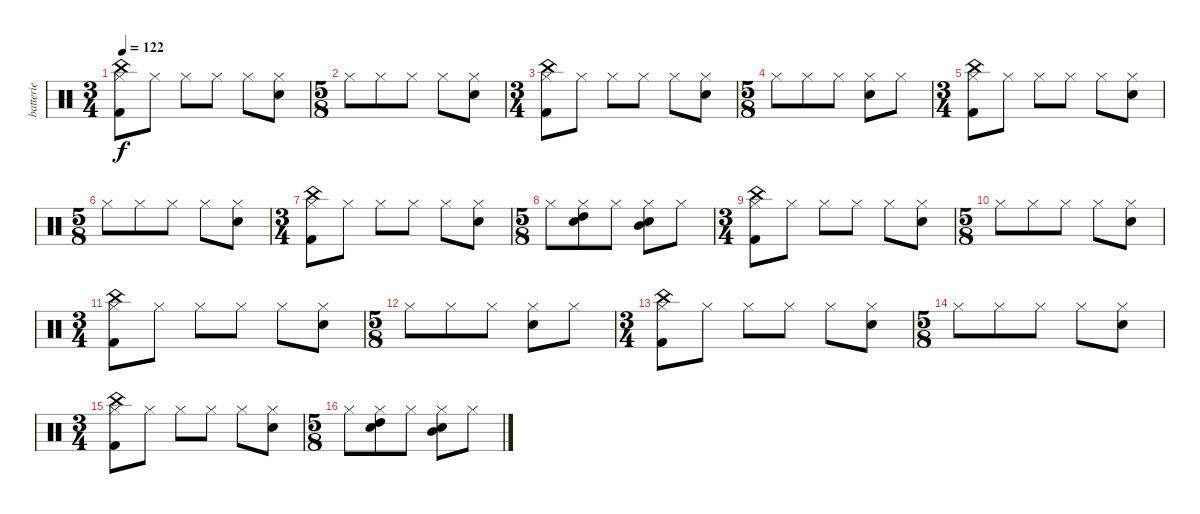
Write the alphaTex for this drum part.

\track ("batterie" "batterie") {instrument percussion}
\staff {score}
\articulation defaults
\ts (3 4)
\tempo 122
\clef neutral
\ks c
("Hi-Hat (closed)" "China (hit)" "Kick (hit) 2").8{dy f} "Hi-Hat (closed)".8 "Hi-Hat (closed)".8 "Hi-Hat (closed)".8 "Hi-Hat (closed)".8 ("Hi-Hat (closed)" "Electric Snare (hit)").8 |
\ts (5 8)
"Hi-Hat (closed)".8 "Hi-Hat (closed)".8 "Hi-Hat (closed)".8 "Hi-Hat (closed)".8 ("Hi-Hat (closed)" "Electric Snare (hit)").8 |
\ts (3 4)
("Hi-Hat (closed)" "China (hit)" "Kick (hit) 2").8 "Hi-Hat (closed)".8 "Hi-Hat (closed)".8 "Hi-Hat (closed)".8 "Hi-Hat (closed)".8 ("Hi-Hat (closed)" "Electric Snare (hit)").8 |
\ts (5 8)
"Hi-Hat (closed)".8 "Hi-Hat (closed)".8 "Hi-Hat (closed)".8 ("Hi-Hat (closed)" "Electric Snare (hit)").8 "Hi-Hat (closed)".8 |
\ts (3 4)
("Hi-Hat (closed)" "China (hit)" "Kick (hit) 2").8 "Hi-Hat (closed)".8 "Hi-Hat (closed)".8 "Hi-Hat (closed)".8 "Hi-Hat (closed)".8 ("Hi-Hat (closed)" "Electric Snare (hit)").8 |
\ts (5 8)
"Hi-Hat (closed)".8 "Hi-Hat (closed)".8 "Hi-Hat (closed)".8 "Hi-Hat (closed)".8 ("Hi-Hat (closed)" "Electric Snare (hit)").8 |
\ts (3 4)
("Hi-Hat (closed)" "China (hit)" "Kick (hit) 2").8 "Hi-Hat (closed)".8 "Hi-Hat (closed)".8 "Hi-Hat (closed)".8 "Hi-Hat (closed)".8 ("Hi-Hat (closed)" "Electric Snare (hit)").8 |
\ts (5 8)
"Hi-Hat (closed)".8 ("Hi-Hat (closed)" "High Tom (hit)" "Electric Snare (hit)").8 "Hi-Hat (closed)".8 ("Hi-Hat (closed)" "Mid Tom (hit)" "Electric Snare (hit)").8 "Hi-Hat (closed)".8 |
\ts (3 4)
("Hi-Hat (closed)" "China (hit)" "Kick (hit) 2").8 "Hi-Hat (closed)".8 "Hi-Hat (closed)".8 "Hi-Hat (closed)".8 "Hi-Hat (closed)".8 ("Hi-Hat (closed)" "Electric Snare (hit)").8 |
\ts (5 8)
"Hi-Hat (closed)".8 "Hi-Hat (closed)".8 "Hi-Hat (closed)".8 "Hi-Hat (closed)".8 ("Hi-Hat (closed)" "Electric Snare (hit)").8 |
\ts (3 4)
("Hi-Hat (closed)" "China (hit)" "Kick (hit) 2").8 "Hi-Hat (closed)".8 "Hi-Hat (closed)".8 "Hi-Hat (closed)".8 "Hi-Hat (closed)".8 ("Hi-Hat (closed)" "Electric Snare (hit)").8 |
\ts (5 8)
"Hi-Hat (closed)".8 "Hi-Hat (closed)".8 "Hi-Hat (closed)".8 ("Hi-Hat (closed)" "Electric Snare (hit)").8 "Hi-Hat (closed)".8 |
\ts (3 4)
("Hi-Hat (closed)" "China (hit)" "Kick (hit) 2").8 "Hi-Hat (closed)".8 "Hi-Hat (closed)".8 "Hi-Hat (closed)".8 "Hi-Hat (closed)".8 ("Hi-Hat (closed)" "Electric Snare (hit)").8 |
\ts (5 8)
"Hi-Hat (closed)".8 "Hi-Hat (closed)".8 "Hi-Hat (closed)".8 "Hi-Hat (closed)".8 ("Hi-Hat (closed)" "Electric Snare (hit)").8 |
\ts (3 4)
("Hi-Hat (closed)" "China (hit)" "Kick (hit) 2").8 "Hi-Hat (closed)".8 "Hi-Hat (closed)".8 "Hi-Hat (closed)".8 "Hi-Hat (closed)".8 ("Hi-Hat (closed)" "Electric Snare (hit)").8 |
\ts (5 8)
"Hi-Hat (closed)".8 ("Hi-Hat (closed)" "High Tom (hit)" "Electric Snare (hit)").8 "Hi-Hat (closed)".8 ("Hi-Hat (closed)" "Mid Tom (hit)" "Electric Snare (hit)").8 "Hi-Hat (closed)".8
